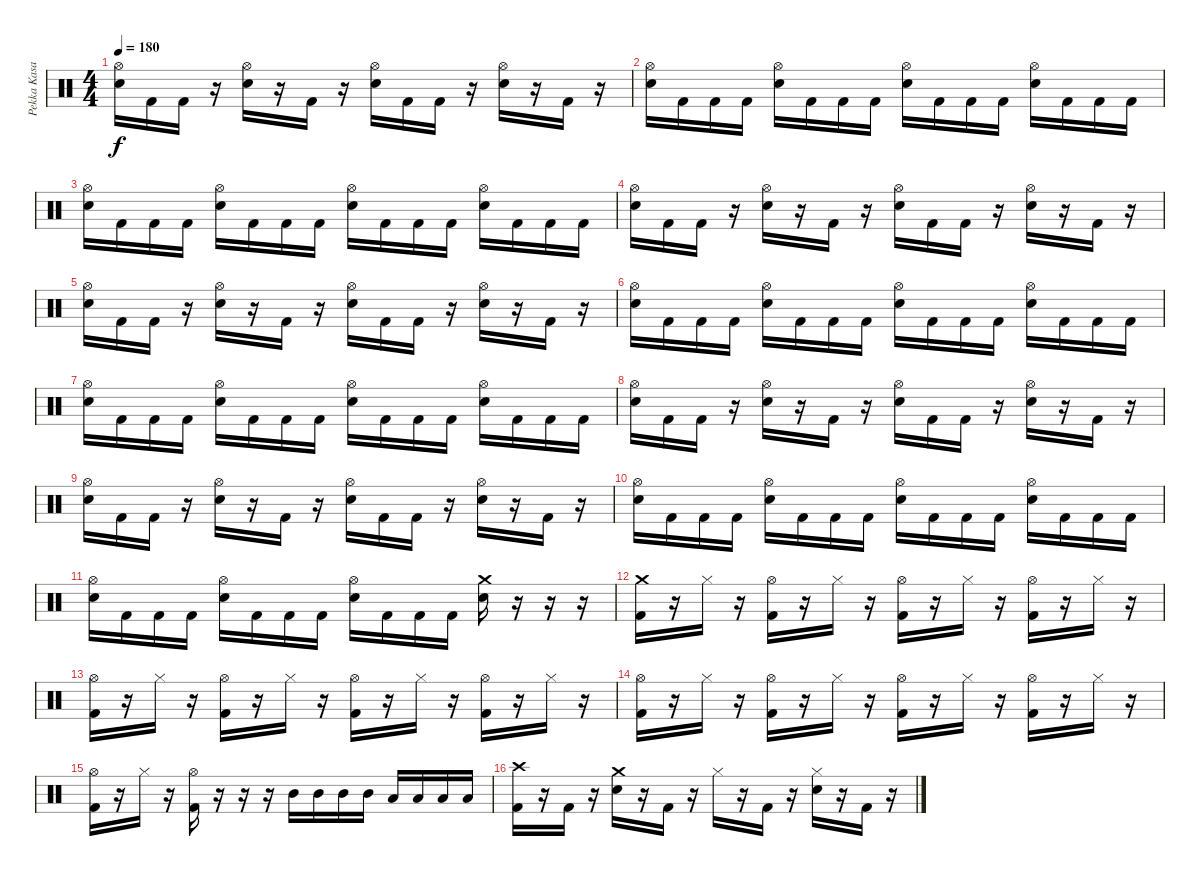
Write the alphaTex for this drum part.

\track ("Pekka Kasari" "Pekka Kasa") {instrument percussion}
\staff {score}
\articulation defaults
\ts (4 4)
\tempo 180
\clef neutral
\ks c
("Hi-Hat (open)" "Electric Snare (hit)").16{dy f} "Kick (hit) 2".16 "Kick (hit) 2".16 r.16 ("Hi-Hat (open)" "Electric Snare (hit)").16 r.16 "Kick (hit) 2".16 r.16 ("Hi-Hat (open)" "Electric Snare (hit)").16 "Kick (hit) 2".16 "Kick (hit) 2".16 r.16 ("Hi-Hat (open)" "Electric Snare (hit)").16 r.16 "Kick (hit) 2".16 r.16 |
("Hi-Hat (open)" "Electric Snare (hit)").16 "Kick (hit) 2".16 "Kick (hit) 2".16 "Kick (hit) 2".16 ("Hi-Hat (open)" "Electric Snare (hit)").16 "Kick (hit) 2".16 "Kick (hit) 2".16 "Kick (hit) 2".16 ("Hi-Hat (open)" "Electric Snare (hit)").16 "Kick (hit) 2".16 "Kick (hit) 2".16 "Kick (hit) 2".16 ("Hi-Hat (open)" "Electric Snare (hit)").16 "Kick (hit) 2".16 "Kick (hit) 2".16 "Kick (hit) 2".16 |
("Hi-Hat (open)" "Electric Snare (hit)").16 "Kick (hit) 2".16 "Kick (hit) 2".16 "Kick (hit) 2".16 ("Hi-Hat (open)" "Electric Snare (hit)").16 "Kick (hit) 2".16 "Kick (hit) 2".16 "Kick (hit) 2".16 ("Hi-Hat (open)" "Electric Snare (hit)").16 "Kick (hit) 2".16 "Kick (hit) 2".16 "Kick (hit) 2".16 ("Hi-Hat (open)" "Electric Snare (hit)").16 "Kick (hit) 2".16 "Kick (hit) 2".16 "Kick (hit) 2".16 |
("Hi-Hat (open)" "Electric Snare (hit)").16 "Kick (hit) 2".16 "Kick (hit) 2".16 r.16 ("Hi-Hat (open)" "Electric Snare (hit)").16 r.16 "Kick (hit) 2".16 r.16 ("Hi-Hat (open)" "Electric Snare (hit)").16 "Kick (hit) 2".16 "Kick (hit) 2".16 r.16 ("Hi-Hat (open)" "Electric Snare (hit)").16 r.16 "Kick (hit) 2".16 r.16 |
("Hi-Hat (open)" "Electric Snare (hit)").16 "Kick (hit) 2".16 "Kick (hit) 2".16 r.16 ("Hi-Hat (open)" "Electric Snare (hit)").16 r.16 "Kick (hit) 2".16 r.16 ("Hi-Hat (open)" "Electric Snare (hit)").16 "Kick (hit) 2".16 "Kick (hit) 2".16 r.16 ("Hi-Hat (open)" "Electric Snare (hit)").16 r.16 "Kick (hit) 2".16 r.16 |
("Hi-Hat (open)" "Electric Snare (hit)").16 "Kick (hit) 2".16 "Kick (hit) 2".16 "Kick (hit) 2".16 ("Hi-Hat (open)" "Electric Snare (hit)").16 "Kick (hit) 2".16 "Kick (hit) 2".16 "Kick (hit) 2".16 ("Hi-Hat (open)" "Electric Snare (hit)").16 "Kick (hit) 2".16 "Kick (hit) 2".16 "Kick (hit) 2".16 ("Hi-Hat (open)" "Electric Snare (hit)").16 "Kick (hit) 2".16 "Kick (hit) 2".16 "Kick (hit) 2".16 |
("Hi-Hat (open)" "Electric Snare (hit)").16 "Kick (hit) 2".16 "Kick (hit) 2".16 "Kick (hit) 2".16 ("Hi-Hat (open)" "Electric Snare (hit)").16 "Kick (hit) 2".16 "Kick (hit) 2".16 "Kick (hit) 2".16 ("Hi-Hat (open)" "Electric Snare (hit)").16 "Kick (hit) 2".16 "Kick (hit) 2".16 "Kick (hit) 2".16 ("Hi-Hat (open)" "Electric Snare (hit)").16 "Kick (hit) 2".16 "Kick (hit) 2".16 "Kick (hit) 2".16 |
("Hi-Hat (open)" "Electric Snare (hit)").16 "Kick (hit) 2".16 "Kick (hit) 2".16 r.16 ("Hi-Hat (open)" "Electric Snare (hit)").16 r.16 "Kick (hit) 2".16 r.16 ("Hi-Hat (open)" "Electric Snare (hit)").16 "Kick (hit) 2".16 "Kick (hit) 2".16 r.16 ("Hi-Hat (open)" "Electric Snare (hit)").16 r.16 "Kick (hit) 2".16 r.16 |
("Hi-Hat (open)" "Electric Snare (hit)").16 "Kick (hit) 2".16 "Kick (hit) 2".16 r.16 ("Hi-Hat (open)" "Electric Snare (hit)").16 r.16 "Kick (hit) 2".16 r.16 ("Hi-Hat (open)" "Electric Snare (hit)").16 "Kick (hit) 2".16 "Kick (hit) 2".16 r.16 ("Hi-Hat (open)" "Electric Snare (hit)").16 r.16 "Kick (hit) 2".16 r.16 |
("Hi-Hat (open)" "Electric Snare (hit)").16 "Kick (hit) 2".16 "Kick (hit) 2".16 "Kick (hit) 2".16 ("Hi-Hat (open)" "Electric Snare (hit)").16 "Kick (hit) 2".16 "Kick (hit) 2".16 "Kick (hit) 2".16 ("Hi-Hat (open)" "Electric Snare (hit)").16 "Kick (hit) 2".16 "Kick (hit) 2".16 "Kick (hit) 2".16 ("Hi-Hat (open)" "Electric Snare (hit)").16 "Kick (hit) 2".16 "Kick (hit) 2".16 "Kick (hit) 2".16 |
("Hi-Hat (open)" "Electric Snare (hit)").16 "Kick (hit) 2".16 "Kick (hit) 2".16 "Kick (hit) 2".16 ("Hi-Hat (open)" "Electric Snare (hit)").16 "Kick (hit) 2".16 "Kick (hit) 2".16 "Kick (hit) 2".16 ("Hi-Hat (open)" "Electric Snare (hit)").16 "Kick (hit) 2".16 "Kick (hit) 2".16 "Kick (hit) 2".16 ("Crash medium (hit)" "Electric Snare (hit)").16 r.16 r.16 r.16 |
("Crash medium (hit)" "Kick (hit) 2").16 r.16 "Hi-Hat (closed)".16 r.16 ("Hi-Hat (open)" "Kick (hit) 2").16 r.16 "Hi-Hat (closed)".16 r.16 ("Hi-Hat (open)" "Kick (hit) 2").16 r.16 "Hi-Hat (closed)".16 r.16 ("Hi-Hat (open)" "Kick (hit) 2").16 r.16 "Hi-Hat (closed)".16 r.16 |
("Hi-Hat (open)" "Kick (hit) 2").16 r.16 "Hi-Hat (closed)".16 r.16 ("Hi-Hat (open)" "Kick (hit) 2").16 r.16 "Hi-Hat (closed)".16 r.16 ("Hi-Hat (open)" "Kick (hit) 2").16 r.16 "Hi-Hat (closed)".16 r.16 ("Hi-Hat (open)" "Kick (hit) 2").16 r.16 "Hi-Hat (closed)".16 r.16 |
("Hi-Hat (open)" "Kick (hit) 2").16 r.16 "Hi-Hat (closed)".16 r.16 ("Hi-Hat (open)" "Kick (hit) 2").16 r.16 "Hi-Hat (closed)".16 r.16 ("Hi-Hat (open)" "Kick (hit) 2").16 r.16 "Hi-Hat (closed)".16 r.16 ("Hi-Hat (open)" "Kick (hit) 2").16 r.16 "Hi-Hat (closed)".16 r.16 |
("Hi-Hat (open)" "Kick (hit) 2").16 r.16 "Hi-Hat (closed)".16 r.16 ("Hi-Hat (open)" "Kick (hit) 2").16 r.16 r.16 r.16 "Mid Tom (hit)".16 "Mid Tom (hit)".16 "Mid Tom (hit)".16 "Mid Tom (hit)".16 "Low Tom (hit)".16 "Low Tom (hit)".16 "Low Tom (hit)".16 "Low Tom (hit)".16 |
("Crash high (hit)" "Kick (hit) 2").16 r.16 "Kick (hit) 2".16 r.16 ("Crash medium (hit)" "Electric Snare (hit)").16 r.16 "Kick (hit) 2".16 r.16 "Hi-Hat (closed)".16 r.16 "Kick (hit) 2".16 r.16 ("Hi-Hat (closed)" "Electric Snare (hit)").16 r.16 "Kick (hit) 2".16 r.16
